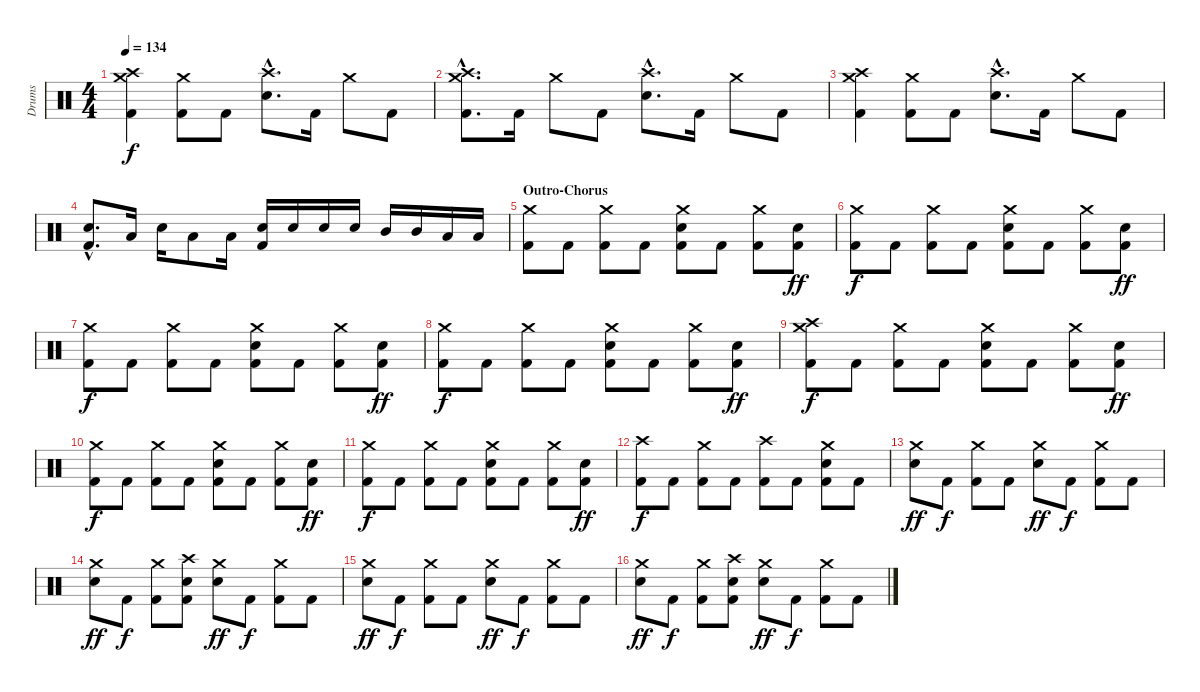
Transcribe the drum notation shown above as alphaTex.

\track ("Drums" "Drums") {instrument percussion}
\staff {score}
\articulation defaults
\ts (4 4)
\tempo 134
\clef neutral
\ks c
("Crash high (hit)" "Crash medium (hit)" "Kick (hit) 2").4{dy f} ("Crash medium (hit)" "Kick (hit) 2").8 "Kick (hit) 2".8 ("Crash high (hit)"{hac} "Electric Snare (hit)"{hac}).8{d} "Kick (hit) 2".16 "Crash medium (hit)".8 "Kick (hit) 2".8 |
("Crash high (hit)"{hac} "Crash medium (hit)"{hac} "Kick (hit) 2"{hac}).8{d} "Kick (hit) 2".16 "Crash medium (hit)".8 "Kick (hit) 2".8 ("Crash high (hit)"{hac} "Electric Snare (hit)"{hac}).8{d} "Kick (hit) 2".16 "Crash medium (hit)".8 "Kick (hit) 2".8 |
("Crash high (hit)" "Crash medium (hit)" "Kick (hit) 2").4 ("Crash medium (hit)" "Kick (hit) 2").8 "Kick (hit) 2".8 ("Crash high (hit)"{hac} "Electric Snare (hit)"{hac}).8{d} "Kick (hit) 2".16 "Crash medium (hit)".8 "Kick (hit) 2".8 |
("Electric Snare (hit)"{hac} "Kick (hit) 2"{hac}).8{d} "Low Tom (hit)".16 "Electric Snare (hit)".16 "Low Tom (hit)".8 "Low Tom (hit)".16 ("Electric Snare (hit)" "Kick (hit) 2").16 "Electric Snare (hit)".16 "Electric Snare (hit)".16 "Electric Snare (hit)".16 "Mid Tom (hit)".16 "Mid Tom (hit)".16 "Low Tom (hit)".16 "Low Tom (hit)".16 |
\section ("" "Outro-Chorus")
("Crash medium (hit)" "Kick (hit) 2").8 "Kick (hit) 2".8 ("Crash medium (hit)" "Kick (hit) 2").8 "Kick (hit) 2".8 ("Crash medium (hit)" "Electric Snare (hit)" "Kick (hit) 2").8 "Kick (hit) 2".8 ("Crash medium (hit)" "Kick (hit) 2").8 ("Electric Snare (hit)" "Kick (hit) 2").8{dy ff} |
("Crash medium (hit)" "Kick (hit) 2").8{dy f} "Kick (hit) 2".8 ("Crash medium (hit)" "Kick (hit) 2").8 "Kick (hit) 2".8 ("Crash medium (hit)" "Electric Snare (hit)" "Kick (hit) 2").8 "Kick (hit) 2".8 ("Crash medium (hit)" "Kick (hit) 2").8 ("Electric Snare (hit)" "Kick (hit) 2").8{dy ff} |
("Crash medium (hit)" "Kick (hit) 2").8{dy f} "Kick (hit) 2".8 ("Crash medium (hit)" "Kick (hit) 2").8 "Kick (hit) 2".8 ("Crash medium (hit)" "Electric Snare (hit)" "Kick (hit) 2").8 "Kick (hit) 2".8 ("Crash medium (hit)" "Kick (hit) 2").8 ("Electric Snare (hit)" "Kick (hit) 2").8{dy ff} |
("Crash medium (hit)" "Kick (hit) 2").8{dy f} "Kick (hit) 2".8 ("Crash medium (hit)" "Kick (hit) 2").8 "Kick (hit) 2".8 ("Crash medium (hit)" "Electric Snare (hit)" "Kick (hit) 2").8 "Kick (hit) 2".8 ("Crash medium (hit)" "Kick (hit) 2").8 ("Electric Snare (hit)" "Kick (hit) 2").8{dy ff} |
("Crash high (hit)" "Crash medium (hit)" "Kick (hit) 2").8{dy f} "Kick (hit) 2".8 ("Crash medium (hit)" "Kick (hit) 2").8 "Kick (hit) 2".8 ("Crash medium (hit)" "Electric Snare (hit)" "Kick (hit) 2").8 "Kick (hit) 2".8 ("Crash medium (hit)" "Kick (hit) 2").8 ("Electric Snare (hit)" "Kick (hit) 2").8{dy ff} |
("Crash medium (hit)" "Kick (hit) 2").8{dy f} "Kick (hit) 2".8 ("Crash medium (hit)" "Kick (hit) 2").8 "Kick (hit) 2".8 ("Crash medium (hit)" "Electric Snare (hit)" "Kick (hit) 2").8 "Kick (hit) 2".8 ("Crash medium (hit)" "Kick (hit) 2").8 ("Electric Snare (hit)" "Kick (hit) 2").8{dy ff} |
("Crash medium (hit)" "Kick (hit) 2").8{dy f} "Kick (hit) 2".8 ("Crash medium (hit)" "Kick (hit) 2").8 "Kick (hit) 2".8 ("Crash medium (hit)" "Electric Snare (hit)" "Kick (hit) 2").8 "Kick (hit) 2".8 ("Crash medium (hit)" "Kick (hit) 2").8 ("Electric Snare (hit)" "Kick (hit) 2").8{dy ff} |
("Crash high (hit)" "Kick (hit) 2").8{dy f} "Kick (hit) 2".8 ("Crash medium (hit)" "Kick (hit) 2").8 "Kick (hit) 2".8 ("Crash high (hit)" "Kick (hit) 2").8 "Kick (hit) 2".8 ("Crash medium (hit)" "Electric Snare (hit)" "Kick (hit) 2").8 "Kick (hit) 2".8 |
("Crash medium (hit)" "Electric Snare (hit)").8{dy ff} "Kick (hit) 2".8{dy f} ("Crash medium (hit)" "Kick (hit) 2").8 "Kick (hit) 2".8 ("Crash medium (hit)" "Electric Snare (hit)").8{dy ff} "Kick (hit) 2".8{dy f} ("Crash medium (hit)" "Kick (hit) 2").8 "Kick (hit) 2".8 |
("Crash medium (hit)" "Electric Snare (hit)").8{dy ff} "Kick (hit) 2".8{dy f} ("Crash medium (hit)" "Kick (hit) 2").8 ("Crash high (hit)" "Electric Snare (hit)" "Kick (hit) 2").8 ("Crash medium (hit)" "Electric Snare (hit)").8{dy ff} "Kick (hit) 2".8{dy f} ("Crash medium (hit)" "Kick (hit) 2").8 "Kick (hit) 2".8 |
("Crash medium (hit)" "Electric Snare (hit)").8{dy ff} "Kick (hit) 2".8{dy f} ("Crash medium (hit)" "Kick (hit) 2").8 "Kick (hit) 2".8 ("Crash medium (hit)" "Electric Snare (hit)").8{dy ff} "Kick (hit) 2".8{dy f} ("Crash medium (hit)" "Kick (hit) 2").8 "Kick (hit) 2".8 |
("Crash medium (hit)" "Electric Snare (hit)").8{dy ff} "Kick (hit) 2".8{dy f} ("Crash medium (hit)" "Kick (hit) 2").8 ("Crash high (hit)" "Electric Snare (hit)" "Kick (hit) 2").8 ("Crash medium (hit)" "Electric Snare (hit)").8{dy ff} "Kick (hit) 2".8{dy f} ("Crash medium (hit)" "Kick (hit) 2").8 "Kick (hit) 2".8
